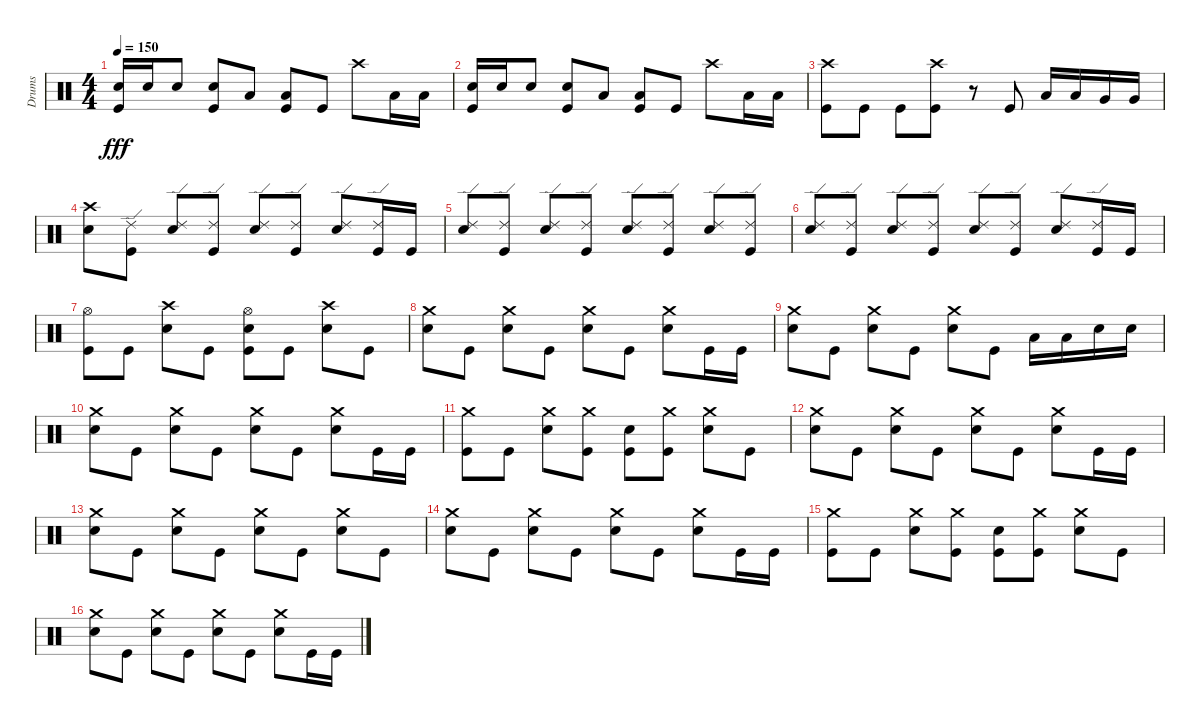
\track ("Drums" "Drums") {instrument percussion}
\staff {score}
\articulation defaults
\ts (4 4)
\tempo 150
\clef neutral
\ks c
("Snare (hit) 2" "Kick (hit)").16{dy fff} "Snare (hit) 2".16 "Snare (hit) 2".8 ("Snare (hit) 2" "Kick (hit)").8 "Low Floor Tom (hit)".8 ("Low Floor Tom (hit)" "Kick (hit)").8 "Kick (hit)".8 "Crash high (hit)".8 "Low Tom (hit)".16 "Low Tom (hit)".16 |
("Snare (hit) 2" "Kick (hit)").16 "Snare (hit) 2".16 "Snare (hit) 2".8 ("Snare (hit) 2" "Kick (hit)").8 "Low Floor Tom (hit)".8 ("Low Floor Tom (hit)" "Kick (hit)").8 "Kick (hit)".8 "Crash high (hit)".8 "Low Tom (hit)".16 "Low Tom (hit)".16 |
("Crash high (hit)" "Kick (hit)").8 "Kick (hit)".8 "Kick (hit)".8 ("Crash high (hit)" "Kick (hit)").8 r.8 "Kick (hit)".8 "Low Tom (hit)".16 "Low Tom (hit)".16 "Very Low Tom (hit)".16 "Very Low Tom (hit)".16 |
("Crash high (hit)" "Snare (hit) 2").8 ("Ride (edge) 2" "Kick (hit)").8 ("Ride (edge) 2" "Snare (hit) 2").8 ("Ride (edge) 2" "Kick (hit)").8 ("Ride (edge) 2" "Snare (hit) 2").8 ("Ride (edge) 2" "Kick (hit)").8 ("Ride (edge) 2" "Snare (hit) 2").8 ("Ride (edge) 2" "Kick (hit)").16 "Kick (hit)".16 |
("Ride (edge) 2" "Snare (hit) 2").8 ("Ride (edge) 2" "Kick (hit)").8 ("Ride (edge) 2" "Snare (hit) 2").8 ("Ride (edge) 2" "Kick (hit)").8 ("Ride (edge) 2" "Snare (hit) 2").8 ("Ride (edge) 2" "Kick (hit)").8 ("Ride (edge) 2" "Snare (hit) 2").8 ("Ride (edge) 2" "Kick (hit)").8 |
("Ride (edge) 2" "Snare (hit) 2").8 ("Ride (edge) 2" "Kick (hit)").8 ("Ride (edge) 2" "Snare (hit) 2").8 ("Ride (edge) 2" "Kick (hit)").8 ("Ride (edge) 2" "Snare (hit) 2").8 ("Ride (edge) 2" "Kick (hit)").8 ("Ride (edge) 2" "Snare (hit) 2").8 ("Ride (edge) 2" "Kick (hit)").16 "Kick (hit)".16 |
("Hi-Hat (open)" "Kick (hit)").8 "Kick (hit)".8 ("Crash high (hit)" "Snare (hit) 2").8 "Kick (hit)".8 ("Hi-Hat (open)" "Snare (hit) 2" "Kick (hit)").8 "Kick (hit)".8 ("Crash high (hit)" "Snare (hit) 2").8 "Kick (hit)".8 |
("Crash medium (hit)" "Snare (hit) 2").8 "Kick (hit)".8 ("Crash medium (hit)" "Snare (hit) 2").8 "Kick (hit)".8 ("Crash medium (hit)" "Snare (hit) 2").8 "Kick (hit)".8 ("Crash medium (hit)" "Snare (hit) 2").8 "Kick (hit)".16 "Kick (hit)".16 |
("Crash medium (hit)" "Snare (hit) 2").8 "Kick (hit)".8 ("Crash medium (hit)" "Snare (hit) 2").8 "Kick (hit)".8 ("Crash medium (hit)" "Snare (hit) 2").8 "Kick (hit)".8 "Low Tom (hit)".16 "Low Tom (hit)".16 "Snare (hit) 2".16 "Snare (hit) 2".16 |
("Crash medium (hit)" "Snare (hit) 2").8 "Kick (hit)".8 ("Crash medium (hit)" "Snare (hit) 2").8 "Kick (hit)".8 ("Crash medium (hit)" "Snare (hit) 2").8 "Kick (hit)".8 ("Crash medium (hit)" "Snare (hit) 2").8 "Kick (hit)".16 "Kick (hit)".16 |
("Crash medium (hit)" "Kick (hit)").8 "Kick (hit)".8 ("Crash medium (hit)" "Snare (hit) 2").8 ("Crash medium (hit)" "Kick (hit)").8 ("Snare (hit) 2" "Kick (hit)").8 ("Crash medium (hit)" "Kick (hit)").8 ("Crash medium (hit)" "Snare (hit) 2").8 "Kick (hit)".8 |
("Crash medium (hit)" "Snare (hit) 2").8 "Kick (hit)".8 ("Crash medium (hit)" "Snare (hit) 2").8 "Kick (hit)".8 ("Crash medium (hit)" "Snare (hit) 2").8 "Kick (hit)".8 ("Crash medium (hit)" "Snare (hit) 2").8 "Kick (hit)".16 "Kick (hit)".16 |
("Crash medium (hit)" "Snare (hit) 2").8 "Kick (hit)".8 ("Crash medium (hit)" "Snare (hit) 2").8 "Kick (hit)".8 ("Crash medium (hit)" "Snare (hit) 2").8 "Kick (hit)".8 ("Crash medium (hit)" "Snare (hit) 2").8 "Kick (hit)".8 |
("Crash medium (hit)" "Snare (hit) 2").8 "Kick (hit)".8 ("Crash medium (hit)" "Snare (hit) 2").8 "Kick (hit)".8 ("Crash medium (hit)" "Snare (hit) 2").8 "Kick (hit)".8 ("Crash medium (hit)" "Snare (hit) 2").8 "Kick (hit)".16 "Kick (hit)".16 |
("Crash medium (hit)" "Kick (hit)").8 "Kick (hit)".8 ("Crash medium (hit)" "Snare (hit) 2").8 ("Crash medium (hit)" "Kick (hit)").8 ("Snare (hit) 2" "Kick (hit)").8 ("Crash medium (hit)" "Kick (hit)").8 ("Crash medium (hit)" "Snare (hit) 2").8 "Kick (hit)".8 |
("Crash medium (hit)" "Snare (hit) 2").8 "Kick (hit)".8 ("Crash medium (hit)" "Snare (hit) 2").8 "Kick (hit)".8 ("Crash medium (hit)" "Snare (hit) 2").8 "Kick (hit)".8 ("Crash medium (hit)" "Snare (hit) 2").8 "Kick (hit)".16 "Kick (hit)".16
